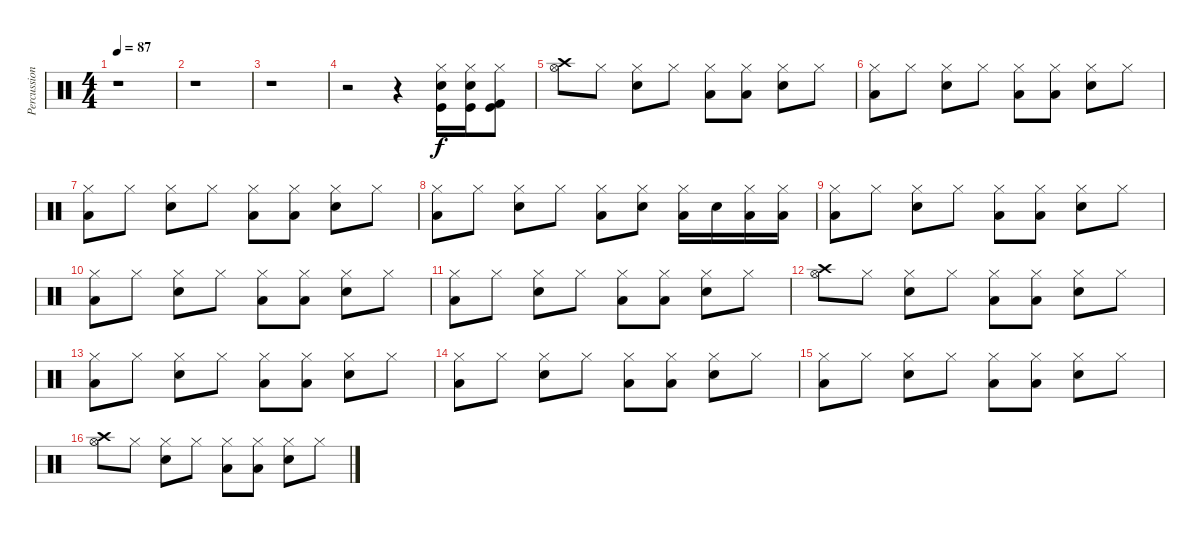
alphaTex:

\track ("Percussion" "Percussion") {instrument percussion}
\staff {score}
\articulation defaults
\ts (4 4)
\tempo 87
\clef neutral
\ks c
r.1{dy f} |
r.1 |
r.1 |
r.2 r.4 ("Electric Snare (hit)" "Kick (hit)" "Hi-Hat (closed)").16 ("Electric Snare (hit)" "Kick (hit)" "Hi-Hat (closed)").16 ("Kick (hit) 2" "Kick (hit)" "Hi-Hat (closed)").8 |
("Crash high (hit)" "Hi-Hat (open)").8 "Hi-Hat (closed)".8 ("Hi-Hat (closed)" "Electric Snare (hit)").8 "Hi-Hat (closed)".8 ("Hi-Hat (closed)" "Low Floor Tom (hit)").8 ("Hi-Hat (closed)" "Low Floor Tom (hit)").8 ("Hi-Hat (closed)" "Electric Snare (hit)").8 "Hi-Hat (closed)".8 |
("Hi-Hat (closed)" "Low Floor Tom (hit)").8 "Hi-Hat (closed)".8 ("Hi-Hat (closed)" "Electric Snare (hit)").8 "Hi-Hat (closed)".8 ("Hi-Hat (closed)" "Low Floor Tom (hit)").8 ("Hi-Hat (closed)" "Low Floor Tom (hit)").8 ("Hi-Hat (closed)" "Electric Snare (hit)").8 "Hi-Hat (closed)".8 |
("Hi-Hat (closed)" "Low Floor Tom (hit)").8 "Hi-Hat (closed)".8 ("Hi-Hat (closed)" "Electric Snare (hit)").8 "Hi-Hat (closed)".8 ("Hi-Hat (closed)" "Low Floor Tom (hit)").8 ("Hi-Hat (closed)" "Low Floor Tom (hit)").8 ("Hi-Hat (closed)" "Electric Snare (hit)").8 "Hi-Hat (closed)".8 |
("Hi-Hat (closed)" "Low Floor Tom (hit)").8 "Hi-Hat (closed)".8 ("Hi-Hat (closed)" "Electric Snare (hit)").8 "Hi-Hat (closed)".8 ("Hi-Hat (closed)" "Low Floor Tom (hit)").8 ("Hi-Hat (closed)" "Electric Snare (hit)").8 ("Hi-Hat (closed)" "Low Floor Tom (hit)").16 "Electric Snare (hit)".16 ("Hi-Hat (closed)" "Low Floor Tom (hit)").16 ("Hi-Hat (closed)" "Low Floor Tom (hit)").16 |
("Hi-Hat (closed)" "Low Floor Tom (hit)").8 "Hi-Hat (closed)".8 ("Hi-Hat (closed)" "Electric Snare (hit)").8 "Hi-Hat (closed)".8 ("Hi-Hat (closed)" "Low Floor Tom (hit)").8 ("Hi-Hat (closed)" "Low Floor Tom (hit)").8 ("Hi-Hat (closed)" "Electric Snare (hit)").8 "Hi-Hat (closed)".8 |
("Hi-Hat (closed)" "Low Floor Tom (hit)").8 "Hi-Hat (closed)".8 ("Hi-Hat (closed)" "Electric Snare (hit)").8 "Hi-Hat (closed)".8 ("Hi-Hat (closed)" "Low Floor Tom (hit)").8 ("Hi-Hat (closed)" "Low Floor Tom (hit)").8 ("Hi-Hat (closed)" "Electric Snare (hit)").8 "Hi-Hat (closed)".8 |
("Hi-Hat (closed)" "Low Floor Tom (hit)").8 "Hi-Hat (closed)".8 ("Hi-Hat (closed)" "Electric Snare (hit)").8 "Hi-Hat (closed)".8 ("Hi-Hat (closed)" "Low Floor Tom (hit)").8 ("Hi-Hat (closed)" "Low Floor Tom (hit)").8 ("Hi-Hat (closed)" "Electric Snare (hit)").8 "Hi-Hat (closed)".8 |
("Crash high (hit)" "Hi-Hat (open)").8 "Hi-Hat (closed)".8 ("Hi-Hat (closed)" "Electric Snare (hit)").8 "Hi-Hat (closed)".8 ("Hi-Hat (closed)" "Low Floor Tom (hit)").8 ("Hi-Hat (closed)" "Low Floor Tom (hit)").8 ("Hi-Hat (closed)" "Electric Snare (hit)").8 "Hi-Hat (closed)".8 |
("Hi-Hat (closed)" "Low Floor Tom (hit)").8 "Hi-Hat (closed)".8 ("Hi-Hat (closed)" "Electric Snare (hit)").8 "Hi-Hat (closed)".8 ("Hi-Hat (closed)" "Low Floor Tom (hit)").8 ("Hi-Hat (closed)" "Low Floor Tom (hit)").8 ("Hi-Hat (closed)" "Electric Snare (hit)").8 "Hi-Hat (closed)".8 |
("Hi-Hat (closed)" "Low Floor Tom (hit)").8 "Hi-Hat (closed)".8 ("Hi-Hat (closed)" "Electric Snare (hit)").8 "Hi-Hat (closed)".8 ("Hi-Hat (closed)" "Low Floor Tom (hit)").8 ("Hi-Hat (closed)" "Low Floor Tom (hit)").8 ("Hi-Hat (closed)" "Electric Snare (hit)").8 "Hi-Hat (closed)".8 |
("Hi-Hat (closed)" "Low Floor Tom (hit)").8 "Hi-Hat (closed)".8 ("Hi-Hat (closed)" "Electric Snare (hit)").8 "Hi-Hat (closed)".8 ("Hi-Hat (closed)" "Low Floor Tom (hit)").8 ("Hi-Hat (closed)" "Low Floor Tom (hit)").8 ("Hi-Hat (closed)" "Electric Snare (hit)").8 "Hi-Hat (closed)".8 |
("Crash high (hit)" "Hi-Hat (open)").8 "Hi-Hat (closed)".8 ("Hi-Hat (closed)" "Electric Snare (hit)").8 "Hi-Hat (closed)".8 ("Hi-Hat (closed)" "Low Floor Tom (hit)").8 ("Hi-Hat (closed)" "Low Floor Tom (hit)").8 ("Hi-Hat (closed)" "Electric Snare (hit)").8 "Hi-Hat (closed)".8
